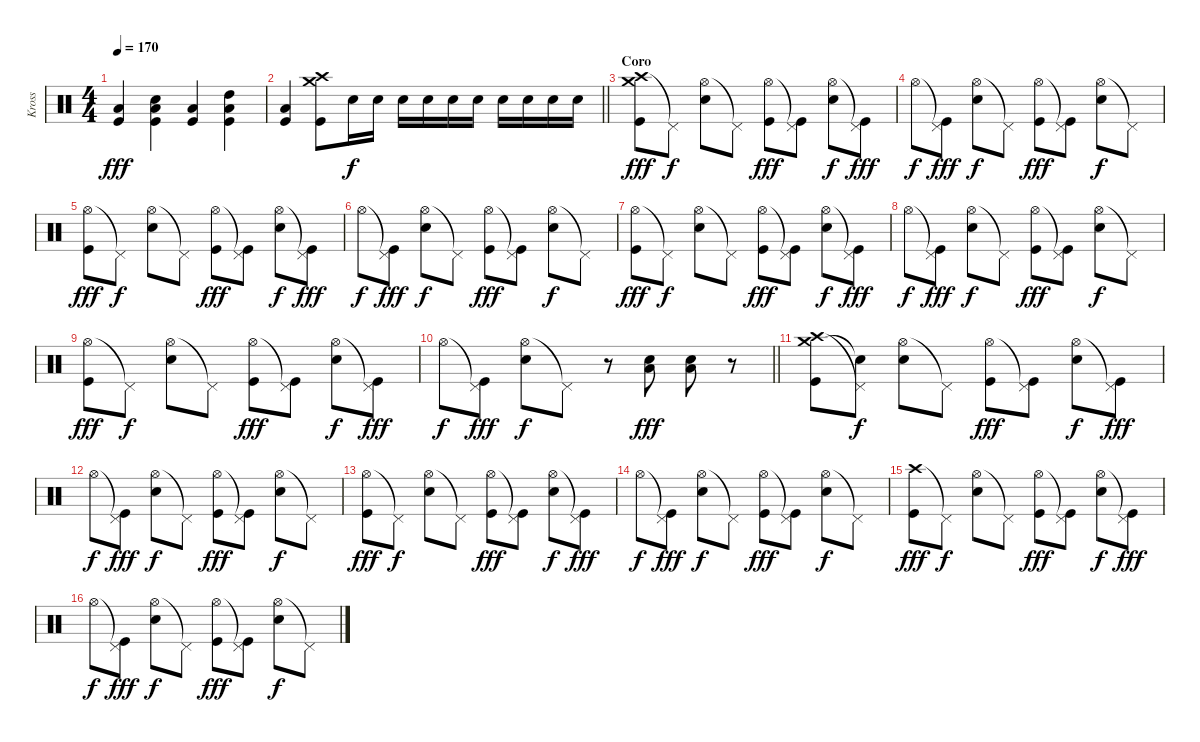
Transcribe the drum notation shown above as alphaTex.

\track ("Kross" "Kross") {instrument percussion}
\staff {score}
\articulation defaults
\ts (4 4)
\tempo 170
\clef neutral
\ks c
("Low Floor Tom (hit)" "Kick (hit)").4{dy fff} ("Electric Snare (hit)" "Low Floor Tom (hit)" "Kick (hit)").4 ("Low Floor Tom (hit)" "Kick (hit)").4 ("High Tom (hit)" "Low Floor Tom (hit)" "Kick (hit)").4 |
\barLineRight lightlight
("Low Floor Tom (hit)" "Kick (hit)").4 ("Crash medium (hit)" "Crash high (hit)" "Kick (hit)").8 "Electric Snare (hit)".16{dy f} "Electric Snare (hit)".16 "Electric Snare (hit)".16 "Electric Snare (hit)".16 "Electric Snare (hit)".16 "Electric Snare (hit)".16 "Electric Snare (hit)".16 "Electric Snare (hit)".16 "Electric Snare (hit)".16 "Electric Snare (hit)".16 |
\section ("" "Coro")
("Crash high (hit)" "Crash medium (hit)" "Kick (hit)").8{dy fff} "Pedal Hi-Hat (hit)"{t}.8{dy f} ("Hi-Hat (open)" "Electric Snare (hit)").8 "Pedal Hi-Hat (hit)"{t}.8 ("Hi-Hat (open)" "Kick (hit)").8{dy fff} ("Pedal Hi-Hat (hit)"{t} "Kick (hit)").8 ("Hi-Hat (open)" "Electric Snare (hit)").8{dy f} ("Pedal Hi-Hat (hit)"{t} "Kick (hit)").8{dy fff} |
"Hi-Hat (open)".8{dy f} ("Pedal Hi-Hat (hit)"{t} "Kick (hit)").8{dy fff} ("Hi-Hat (open)" "Electric Snare (hit)").8{dy f} "Pedal Hi-Hat (hit)"{t}.8 ("Hi-Hat (open)" "Kick (hit)").8{dy fff} ("Pedal Hi-Hat (hit)"{t} "Kick (hit)").8 ("Hi-Hat (open)" "Electric Snare (hit)").8{dy f} "Pedal Hi-Hat (hit)"{t}.8 |
("Hi-Hat (open)" "Kick (hit)").8{dy fff} "Pedal Hi-Hat (hit)"{t}.8{dy f} ("Hi-Hat (open)" "Electric Snare (hit)").8 "Pedal Hi-Hat (hit)"{t}.8 ("Hi-Hat (open)" "Kick (hit)").8{dy fff} ("Pedal Hi-Hat (hit)"{t} "Kick (hit)").8 ("Hi-Hat (open)" "Electric Snare (hit)").8{dy f} ("Pedal Hi-Hat (hit)"{t} "Kick (hit)").8{dy fff} |
"Hi-Hat (open)".8{dy f} ("Pedal Hi-Hat (hit)"{t} "Kick (hit)").8{dy fff} ("Hi-Hat (open)" "Electric Snare (hit)").8{dy f} "Pedal Hi-Hat (hit)"{t}.8 ("Hi-Hat (open)" "Kick (hit)").8{dy fff} ("Pedal Hi-Hat (hit)"{t} "Kick (hit)").8 ("Hi-Hat (open)" "Electric Snare (hit)").8{dy f} "Pedal Hi-Hat (hit)"{t}.8 |
("Hi-Hat (open)" "Kick (hit)").8{dy fff} "Pedal Hi-Hat (hit)"{t}.8{dy f} ("Hi-Hat (open)" "Electric Snare (hit)").8 "Pedal Hi-Hat (hit)"{t}.8 ("Hi-Hat (open)" "Kick (hit)").8{dy fff} ("Pedal Hi-Hat (hit)"{t} "Kick (hit)").8 ("Hi-Hat (open)" "Electric Snare (hit)").8{dy f} ("Pedal Hi-Hat (hit)"{t} "Kick (hit)").8{dy fff} |
"Hi-Hat (open)".8{dy f} ("Pedal Hi-Hat (hit)"{t} "Kick (hit)").8{dy fff} ("Hi-Hat (open)" "Electric Snare (hit)").8{dy f} "Pedal Hi-Hat (hit)"{t}.8 ("Hi-Hat (open)" "Kick (hit)").8{dy fff} ("Pedal Hi-Hat (hit)"{t} "Kick (hit)").8 ("Hi-Hat (open)" "Electric Snare (hit)").8{dy f} "Pedal Hi-Hat (hit)"{t}.8 |
("Hi-Hat (open)" "Kick (hit)").8{dy fff} "Pedal Hi-Hat (hit)"{t}.8{dy f} ("Hi-Hat (open)" "Electric Snare (hit)").8 "Pedal Hi-Hat (hit)"{t}.8 ("Hi-Hat (open)" "Kick (hit)").8{dy fff} ("Pedal Hi-Hat (hit)"{t} "Kick (hit)").8 ("Hi-Hat (open)" "Electric Snare (hit)").8{dy f} ("Pedal Hi-Hat (hit)"{t} "Kick (hit)").8{dy fff} |
\barLineRight lightlight "Hi-Hat (open)".8{dy f}
("Pedal Hi-Hat (hit)"{t} "Kick (hit)").8{dy fff} ("Hi-Hat (open)" "Electric Snare (hit)").8{dy f} "Pedal Hi-Hat (hit)"{t}.8 r.8 ("Low Floor Tom (hit)" "Electric Snare (hit)").8{dy fff} ("Low Floor Tom (hit)" "Electric Snare (hit)").8 r.8 |
("Crash high (hit)" "Crash medium (hit)" "Kick (hit)").8 ("Pedal Hi-Hat (hit)"{t} "Snare (hit)"{t}).8{dy f} ("Hi-Hat (open)" "Electric Snare (hit)").8 "Pedal Hi-Hat (hit)"{t}.8 ("Hi-Hat (open)" "Kick (hit)").8{dy fff} ("Pedal Hi-Hat (hit)"{t} "Kick (hit)").8 ("Hi-Hat (open)" "Electric Snare (hit)").8{dy f} ("Pedal Hi-Hat (hit)"{t} "Kick (hit)").8{dy fff} |
"Hi-Hat (open)".8{dy f} ("Pedal Hi-Hat (hit)"{t} "Kick (hit)").8{dy fff} ("Hi-Hat (open)" "Electric Snare (hit)").8{dy f} "Pedal Hi-Hat (hit)"{t}.8 ("Hi-Hat (open)" "Kick (hit)").8{dy fff} ("Pedal Hi-Hat (hit)"{t} "Kick (hit)").8 ("Hi-Hat (open)" "Electric Snare (hit)").8{dy f} "Pedal Hi-Hat (hit)"{t}.8 |
("Hi-Hat (open)" "Kick (hit)").8{dy fff} "Pedal Hi-Hat (hit)"{t}.8{dy f} ("Hi-Hat (open)" "Electric Snare (hit)").8 "Pedal Hi-Hat (hit)"{t}.8 ("Hi-Hat (open)" "Kick (hit)").8{dy fff} ("Pedal Hi-Hat (hit)"{t} "Kick (hit)").8 ("Hi-Hat (open)" "Electric Snare (hit)").8{dy f} ("Pedal Hi-Hat (hit)"{t} "Kick (hit)").8{dy fff} |
"Hi-Hat (open)".8{dy f} ("Pedal Hi-Hat (hit)"{t} "Kick (hit)").8{dy fff} ("Hi-Hat (open)" "Electric Snare (hit)").8{dy f} "Pedal Hi-Hat (hit)"{t}.8 ("Hi-Hat (open)" "Kick (hit)").8{dy fff} ("Pedal Hi-Hat (hit)"{t} "Kick (hit)").8 ("Hi-Hat (open)" "Electric Snare (hit)").8{dy f} "Pedal Hi-Hat (hit)"{t}.8 |
("Crash high (hit)" "Kick (hit)").8{dy fff} "Pedal Hi-Hat (hit)"{t}.8{dy f} ("Hi-Hat (open)" "Electric Snare (hit)").8 "Pedal Hi-Hat (hit)"{t}.8 ("Hi-Hat (open)" "Kick (hit)").8{dy fff} ("Pedal Hi-Hat (hit)"{t} "Kick (hit)").8 ("Hi-Hat (open)" "Electric Snare (hit)").8{dy f} ("Pedal Hi-Hat (hit)"{t} "Kick (hit)").8{dy fff} |
"Hi-Hat (open)".8{dy f} ("Pedal Hi-Hat (hit)"{t} "Kick (hit)").8{dy fff} ("Hi-Hat (open)" "Electric Snare (hit)").8{dy f} "Pedal Hi-Hat (hit)"{t}.8 ("Hi-Hat (open)" "Kick (hit)").8{dy fff} ("Pedal Hi-Hat (hit)"{t} "Kick (hit)").8 ("Hi-Hat (open)" "Electric Snare (hit)").8{dy f} "Pedal Hi-Hat (hit)"{t}.8
